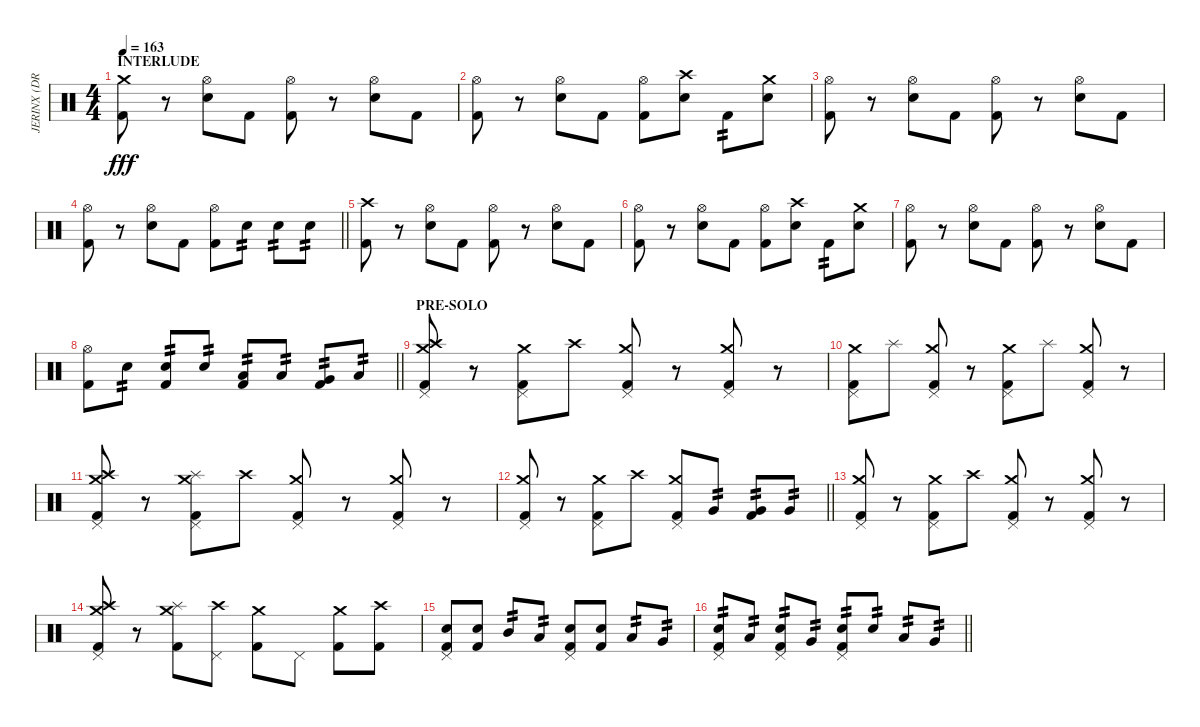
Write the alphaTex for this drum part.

\track ("JERINX (DRUM)" "JERINX (DR") {instrument percussion}
\staff {score}
\articulation defaults
\ts (4 4)
\section ("" "INTERLUDE")
\tempo 163
\clef neutral
\ks c
("Kick (hit) 2" "Crash medium (hit)").8{dy fff} r.8 ("Hi-Hat (open)" "Snare (hit) 2").8 "Kick (hit) 2".8 ("Hi-Hat (open)" "Kick (hit) 2").8 r.8 ("Hi-Hat (open)" "Snare (hit) 2").8 "Kick (hit) 2".8 |
("Hi-Hat (open)" "Kick (hit) 2").8 r.8 ("Hi-Hat (open)" "Snare (hit) 2").8 "Kick (hit) 2".8 ("Hi-Hat (open)" "Kick (hit) 2").8 ("Snare (hit) 2" "Crash high (hit)").8 "Kick (hit) 2".8{tp 2} ("Snare (hit) 2" "Crash medium (hit)").8 |
("Hi-Hat (open)" "Kick (hit) 2").8 r.8 ("Hi-Hat (open)" "Snare (hit) 2").8 "Kick (hit) 2".8 ("Hi-Hat (open)" "Kick (hit) 2").8 r.8 ("Hi-Hat (open)" "Snare (hit) 2").8 "Kick (hit) 2".8 |
\barLineRight lightlight
("Hi-Hat (open)" "Kick (hit) 2").8 r.8 ("Hi-Hat (open)" "Snare (hit) 2").8 "Kick (hit) 2".8 ("Hi-Hat (open)" "Kick (hit) 2").8 "Snare (hit) 2".8{tp 2} "Snare (hit) 2".8{tp 2} "Snare (hit) 2".8{tp 2} |
("Kick (hit) 2" "Crash high (hit)").8 r.8 ("Hi-Hat (open)" "Snare (hit) 2").8 "Kick (hit) 2".8 ("Hi-Hat (open)" "Kick (hit) 2").8 r.8 ("Hi-Hat (open)" "Snare (hit) 2").8 "Kick (hit) 2".8 |
("Hi-Hat (open)" "Kick (hit) 2").8 r.8 ("Hi-Hat (open)" "Snare (hit) 2").8 "Kick (hit) 2".8 ("Hi-Hat (open)" "Kick (hit) 2").8 ("Snare (hit) 2" "Crash high (hit)").8 "Kick (hit) 2".8{tp 2} ("Snare (hit) 2" "Crash medium (hit)").8 |
("Hi-Hat (open)" "Kick (hit) 2").8 r.8 ("Hi-Hat (open)" "Snare (hit) 2").8 "Kick (hit) 2".8 ("Hi-Hat (open)" "Kick (hit) 2").8 r.8 ("Hi-Hat (open)" "Snare (hit) 2").8 "Kick (hit) 2".8 |
\barLineRight lightlight
("Hi-Hat (open)" "Kick (hit) 2").8 "Snare (hit) 2".8{tp 2} ("Snare (hit) 2" "Kick (hit) 2").8{tp 2} "Snare (hit) 2".8{tp 2} ("Kick (hit) 2" "Low Tom (hit)").8{tp 2} "Low Tom (hit)".8{tp 2} ("Kick (hit) 2" "Very Low Tom (hit)").8{tp 2} "Low Floor Tom (hit)".8{tp 2} |
\section ("" "PRE-SOLO")
("Pedal Hi-Hat (hit)" "Kick (hit) 2" "Crash high (hit)" "Crash medium (hit)").8 r.8 ("Pedal Hi-Hat (hit)" "Kick (hit) 2" "Crash medium (hit)").8 "Crash high (hit)".8 ("Pedal Hi-Hat (hit)" "Kick (hit) 2" "Crash medium (hit)").8 r.8 ("Pedal Hi-Hat (hit)" "Kick (hit) 2" "Crash medium (hit)").8 r.8 |
("Pedal Hi-Hat (hit)" "Kick (hit) 2" "Crash medium (hit)").8 "Splash (hit)".8 ("Pedal Hi-Hat (hit)" "Kick (hit) 2" "Crash medium (hit)").8 r.8 ("Pedal Hi-Hat (hit)" "Kick (hit) 2" "Crash medium (hit)").8 "Splash (hit)".8 ("Pedal Hi-Hat (hit)" "Kick (hit) 2" "Crash medium (hit)").8 r.8 |
("Pedal Hi-Hat (hit)" "Kick (hit) 2" "Crash high (hit)" "Crash medium (hit)").8 r.8 ("Pedal Hi-Hat (hit)" "Kick (hit) 2" "Splash (hit)" "Crash medium (hit)").8 "Crash high (hit)".8 ("Pedal Hi-Hat (hit)" "Kick (hit) 2" "Crash medium (hit)").8 r.8 ("Pedal Hi-Hat (hit)" "Kick (hit) 2" "Crash medium (hit)").8 r.8 |
\barLineRight lightlight
("Pedal Hi-Hat (hit)" "Kick (hit) 2" "Crash medium (hit)").8 r.8 ("Pedal Hi-Hat (hit)" "Kick (hit) 2" "Crash medium (hit)").8 "Crash high (hit)".8 ("Pedal Hi-Hat (hit)" "Kick (hit) 2" "Crash medium (hit)").8 "Very Low Tom (hit)".8{tp 2} ("Kick (hit) 2" "Very Low Tom (hit)").8{tp 2} "Very Low Tom (hit)".8{tp 2} |
("Pedal Hi-Hat (hit)" "Kick (hit) 2" "Crash medium (hit)").8 r.8 ("Pedal Hi-Hat (hit)" "Kick (hit) 2" "Crash medium (hit)").8 "Crash high (hit)".8 ("Pedal Hi-Hat (hit)" "Kick (hit) 2" "Crash medium (hit)").8 r.8 ("Pedal Hi-Hat (hit)" "Kick (hit) 2" "Crash medium (hit)").8 r.8 |
("Pedal Hi-Hat (hit)" "Kick (hit) 2" "Crash high (hit)" "Crash medium (hit)").8 r.8 ("Kick (hit) 2" "Splash (hit)" "Crash medium (hit)").8 ("Pedal Hi-Hat (hit)" "Crash high (hit)").8 ("Kick (hit) 2" "Crash medium (hit)").8 "Pedal Hi-Hat (hit)".8 ("Kick (hit) 2" "Crash medium (hit)").8 ("Kick (hit) 2" "Crash high (hit)").8 |
("Pedal Hi-Hat (hit)" "Snare (hit) 2" "Kick (hit) 2").8 ("Snare (hit) 2" "Kick (hit) 2").8 "Mid Tom (hit)".8{tp 2} "Low Tom (hit)".8{tp 2} ("Pedal Hi-Hat (hit)" "Snare (hit) 2" "Kick (hit) 2").8 ("Snare (hit) 2" "Kick (hit) 2").8 "Low Tom (hit)".8{tp 2} "Very Low Tom (hit)".8{tp 2} |
\barLineRight lightlight
("Pedal Hi-Hat (hit)" "Snare (hit) 2" "Kick (hit) 2").8{tp 2} "Low Tom (hit)".8{tp 2} ("Pedal Hi-Hat (hit)" "Snare (hit) 2" "Kick (hit) 2").8{tp 2} "Very Low Tom (hit)".8{tp 2} ("Pedal Hi-Hat (hit)" "Snare (hit) 2" "Kick (hit) 2").8{tp 2} "Snare (hit) 2".8{tp 2} "Low Tom (hit)".8{tp 2} "Very Low Tom (hit)".8{tp 2}
